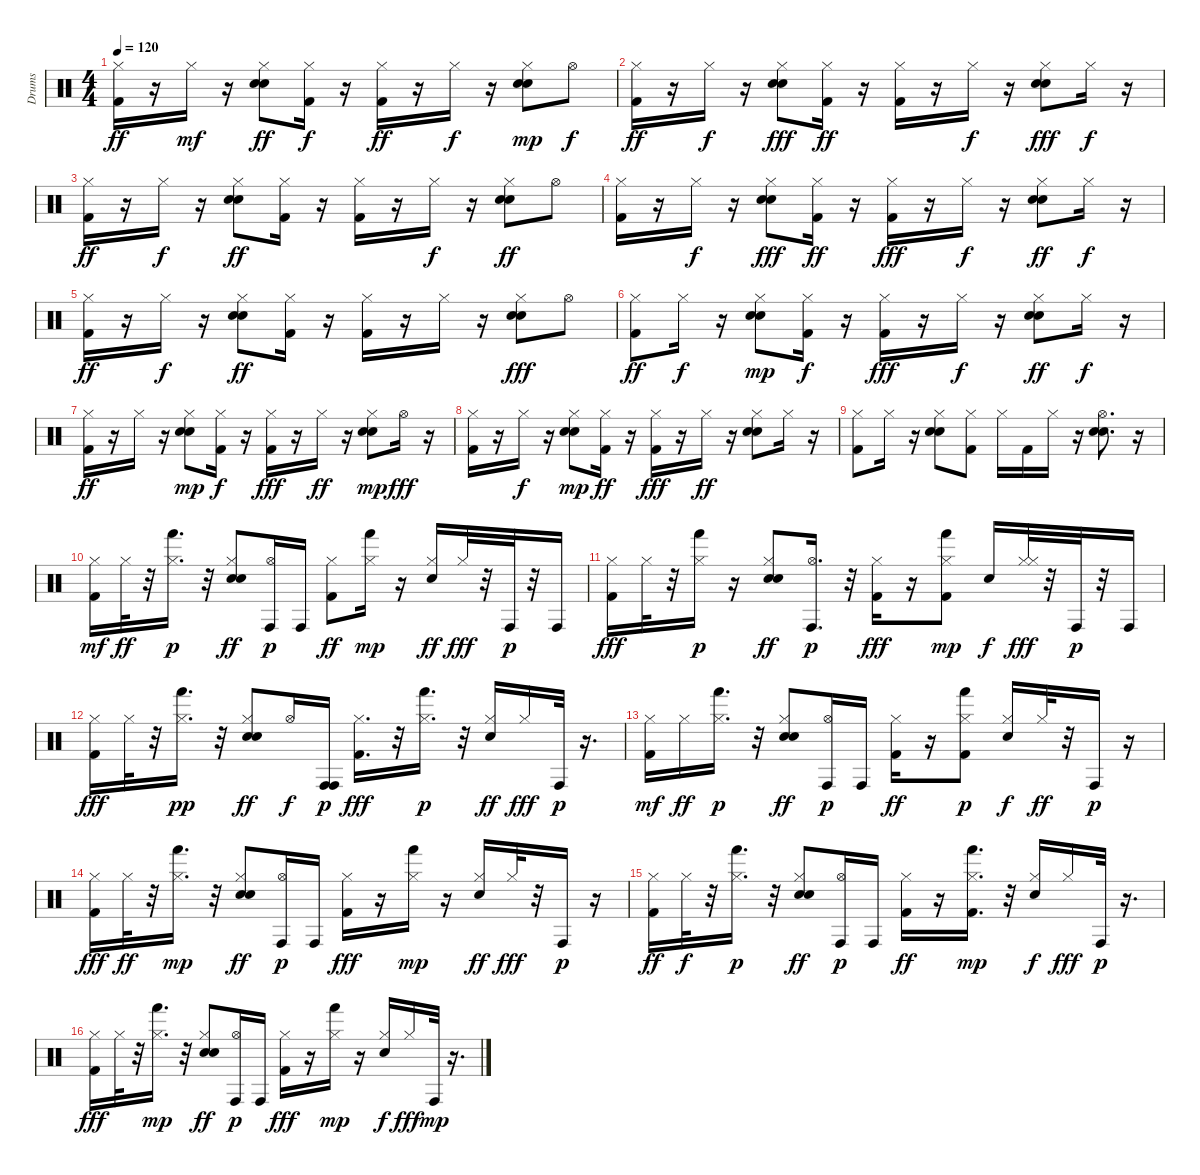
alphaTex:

\track ("Drums" "Drums") {instrument percussion}
\staff {score}
\articulation defaults
\ts (4 4)
\tempo 120
\clef neutral
\ks c
("Hi-Hat (closed)" "Kick (hit) 2").16{dy ff} r.16 "Hi-Hat (closed)".16{dy mf} r.16 ("Electric Snare (hit)" "Hi-Hat (closed)" "Hand Clap (hit)").8{dy ff} ("Kick (hit) 2" "Hi-Hat (closed)").16{dy f} r.16 ("Hi-Hat (closed)" "Kick (hit) 2").16{dy ff} r.16 "Hi-Hat (closed)".16{dy f} r.16 ("Hand Clap (hit)" "Hi-Hat (closed)" "Electric Snare (hit)").8{dy mp} "Hi-Hat (open)".8{dy f} |
("Kick (hit) 2" "Hi-Hat (closed)").16{dy ff} r.16 "Hi-Hat (closed)".16{dy f} r.16 ("Electric Snare (hit)" "Hand Clap (hit)" "Hi-Hat (closed)").8{dy fff} ("Hi-Hat (closed)" "Kick (hit) 2").16{dy ff} r.16 ("Kick (hit) 2" "Hi-Hat (closed)").16 r.16 "Hi-Hat (closed)".16{dy f} r.16 ("Hand Clap (hit)" "Electric Snare (hit)" "Hi-Hat (closed)").8{dy fff} "Hi-Hat (closed)".16{dy f} r.16 |
("Kick (hit) 2" "Hi-Hat (closed)").16{dy ff} r.16 "Hi-Hat (closed)".16{dy f} r.16 ("Hi-Hat (closed)" "Electric Snare (hit)" "Hand Clap (hit)").8{dy ff} ("Kick (hit) 2" "Hi-Hat (closed)").16 r.16 ("Hi-Hat (closed)" "Kick (hit) 2").16 r.16 "Hi-Hat (closed)".16{dy f} r.16 ("Hi-Hat (closed)" "Electric Snare (hit)" "Hand Clap (hit)").8{dy ff} "Hi-Hat (open)".8 |
("Hi-Hat (closed)" "Kick (hit) 2").16 r.16 "Hi-Hat (closed)".16{dy f} r.16 ("Hand Clap (hit)" "Electric Snare (hit)" "Hi-Hat (closed)").8{dy fff} ("Kick (hit) 2" "Hi-Hat (closed)").16{dy ff} r.16 ("Kick (hit) 2" "Hi-Hat (closed)").16{dy fff} r.16 "Hi-Hat (closed)".16{dy f} r.16 ("Electric Snare (hit)" "Hi-Hat (closed)" "Hand Clap (hit)").8{dy ff} "Hi-Hat (closed)".16{dy f} r.16 |
("Hi-Hat (closed)" "Kick (hit) 2").16{dy ff} r.16 "Hi-Hat (closed)".16{dy f} r.16 ("Hi-Hat (closed)" "Electric Snare (hit)" "Hand Clap (hit)").8{dy ff} ("Hi-Hat (closed)" "Kick (hit) 2").16 r.16 ("Kick (hit) 2" "Hi-Hat (closed)").16 r.16 "Hi-Hat (closed)".16 r.16 ("Electric Snare (hit)" "Hand Clap (hit)" "Hi-Hat (closed)").8{dy fff} "Hi-Hat (open)".8 |
("Hi-Hat (closed)" "Kick (hit) 2").8{dy ff} "Hi-Hat (closed)".16{dy f} r.16 ("Hand Clap (hit)" "Hi-Hat (closed)" "Electric Snare (hit)").8{dy mp} ("Kick (hit) 2" "Hi-Hat (closed)").16{dy f} r.16 ("Kick (hit) 2" "Hi-Hat (closed)").16{dy fff} r.16 "Hi-Hat (closed)".16{dy f} r.16 ("Electric Snare (hit)" "Hi-Hat (closed)" "Hand Clap (hit)").8{dy ff} "Hi-Hat (closed)".16{dy f} r.16 |
("Hi-Hat (closed)" "Kick (hit) 2").16{dy ff} r.16 "Hi-Hat (closed)".16 r.16 ("Hand Clap (hit)" "Hi-Hat (closed)" "Electric Snare (hit)").8{dy mp} ("Hi-Hat (closed)" "Kick (hit) 2").16{dy f} r.16 ("Kick (hit) 2" "Hi-Hat (closed)").16{dy fff} r.16 "Hi-Hat (closed)".16{dy ff} r.16 ("Hi-Hat (closed)" "Hand Clap (hit)" "Electric Snare (hit)").8{dy mp} "Hi-Hat (open)".16{dy fff} r.16 |
("Hi-Hat (closed)" "Kick (hit) 2").16 r.16 "Hi-Hat (closed)".16{dy f} r.16 ("Hand Clap (hit)" "Hi-Hat (closed)" "Electric Snare (hit)").8{dy mp} ("Kick (hit) 2" "Hi-Hat (closed)").16{dy ff} r.16 ("Kick (hit) 2" "Hi-Hat (closed)").16{dy fff} r.16 "Hi-Hat (closed)".16{dy ff} r.16 ("Electric Snare (hit)" "Hi-Hat (closed)" "Hand Clap (hit)").8 "Hi-Hat (closed)".16 r.16 |
("Kick (hit) 2" "Hi-Hat (closed)").8 "Hi-Hat (closed)".16 r.16 ("Electric Snare (hit)" "Hand Clap (hit)" "Hi-Hat (closed)").8 ("Kick (hit) 2" "Hi-Hat (closed)").8 "Hi-Hat (closed)".16 "Kick (hit) 2".16 "Hi-Hat (closed)".16 r.16 ("Electric Snare (hit)" "Hi-Hat (open)" "Hand Clap (hit)").8{d} r.16 |
("Kick (hit) 2" "Hi-Hat (closed)").16{dy mf} "Hi-Hat (closed)".32{dy ff} r.32 ("Hi-Hat (closed)" "Hand (hit)").16{d dy p} r.32 ("Hi-Hat (closed)" "Hand Clap (hit)" "Electric Snare (hit)").8{dy ff} ("Hi-Hat (open)" "Conga high (hit)").16{dy p} "Conga high (hit)".16 ("Kick (hit) 2" "Hi-Hat (closed)").8{dy ff} ("Hi-Hat (closed)" "Hand (hit)").16{dy mp} r.16 ("Hi-Hat (closed)" "Electric Snare (hit)").16{dy ff} "Hi-Hat (closed)".32{dy fff} r.32 "Conga high (hit)".32{dy p} r.32 "Conga high (hit)".16 |
("Kick (hit) 2" "Hi-Hat (closed)").16{dy fff} "Hi-Hat (closed)".32 r.32 ("Hi-Hat (closed)" "Hand (hit)").16{dy p} r.16 ("Hi-Hat (closed)" "Electric Snare (hit)" "Hand Clap (hit)").8{dy ff} ("Hi-Hat (open)" "Conga high (hit)").16{d dy p} r.32 ("Kick (hit) 2" "Hi-Hat (closed)").16{dy fff} r.16 ("Kick (hit) 2" "Hi-Hat (closed)" "Hand (hit)").8{dy mp} "Electric Snare (hit)".16{dy f} ("Hi-Hat (closed)" "Hi-Hat (closed)").32{dy fff} r.32 "Conga high (hit)".32{dy p} r.32 "Conga high (hit)".16 |
("Kick (hit) 2" "Hi-Hat (closed)").16{dy fff} "Hi-Hat (closed)".32 r.32 ("Hi-Hat (closed)" "Hand (hit)").16{d dy pp} r.32 ("Hi-Hat (closed)" "Electric Snare (hit)" "Hand Clap (hit)").8{dy ff} "Hi-Hat (open)".16{dy f} ("Conga high (hit)" "Conga high (hit)").16{dy p} ("Kick (hit) 2" "Hi-Hat (closed)").16{d dy fff} r.32 ("Hi-Hat (closed)" "Hand (hit)").16{d dy p} r.32 ("Hi-Hat (closed)" "Electric Snare (hit)").16{dy ff} "Hi-Hat (closed)".16{dy fff} "Conga high (hit)".32{dy p} r.16{d} |
("Kick (hit) 2" "Hi-Hat (closed)").16{dy mf} "Hi-Hat (closed)".16{dy ff} ("Hi-Hat (closed)" "Hand (hit)").16{d dy p} r.32 ("Hi-Hat (closed)" "Electric Snare (hit)" "Hand Clap (hit)").8{dy ff} ("Hi-Hat (open)" "Conga high (hit)").16{dy p} "Conga high (hit)".16 ("Kick (hit) 2" "Hi-Hat (closed)").16{dy ff} r.16 ("Kick (hit) 2" "Hi-Hat (closed)" "Hand (hit)").8{dy p} ("Hi-Hat (closed)" "Electric Snare (hit)").16{dy f} "Hi-Hat (closed)".32{dy ff} r.32 "Conga high (hit)".16{dy p} r.16 |
("Kick (hit) 2" "Hi-Hat (closed)").16{dy fff} "Hi-Hat (closed)".32{dy ff} r.32 ("Hi-Hat (closed)" "Hand (hit)").16{d dy mp} r.32 ("Hi-Hat (closed)" "Electric Snare (hit)" "Hand Clap (hit)").8{dy ff} ("Hi-Hat (open)" "Conga high (hit)").16{dy p} "Conga high (hit)".16 ("Kick (hit) 2" "Hi-Hat (closed)").16{dy fff} r.16 ("Hi-Hat (closed)" "Hand (hit)").16{dy mp} r.16 ("Hi-Hat (closed)" "Electric Snare (hit)").16{dy ff} "Hi-Hat (closed)".32{dy fff} r.32 "Conga high (hit)".16{dy p} r.16 |
("Kick (hit) 2" "Hi-Hat (closed)").16{dy ff} "Hi-Hat (closed)".32{dy f} r.32 ("Hi-Hat (closed)" "Hand (hit)").16{d dy p} r.32 ("Hi-Hat (closed)" "Hand Clap (hit)" "Electric Snare (hit)").8{dy ff} ("Hi-Hat (open)" "Conga high (hit)").16{dy p} "Conga high (hit)".16 ("Kick (hit) 2" "Hi-Hat (closed)").16{dy ff} r.16 ("Kick (hit) 2" "Hi-Hat (closed)" "Hand (hit)").16{d dy mp} r.32 ("Hi-Hat (closed)" "Electric Snare (hit)").16{dy f} "Hi-Hat (closed)".16{dy fff} "Conga high (hit)".32{dy p} r.16{d} |
("Kick (hit) 2" "Hi-Hat (closed)").16{dy fff} "Hi-Hat (closed)".32 r.32 ("Hi-Hat (closed)" "Hand (hit)").16{d dy mp} r.32 ("Hi-Hat (closed)" "Electric Snare (hit)" "Hand Clap (hit)").8{dy ff} ("Hi-Hat (open)" "Conga high (hit)").16{dy p} "Conga high (hit)".16 ("Kick (hit) 2" "Hi-Hat (closed)").16{dy fff} r.16 ("Hi-Hat (closed)" "Hand (hit)").16{dy mp} r.16 ("Hi-Hat (closed)" "Electric Snare (hit)").16{dy f} "Hi-Hat (closed)".16{dy fff} "Conga high (hit)".32{dy mp} r.16{d}
